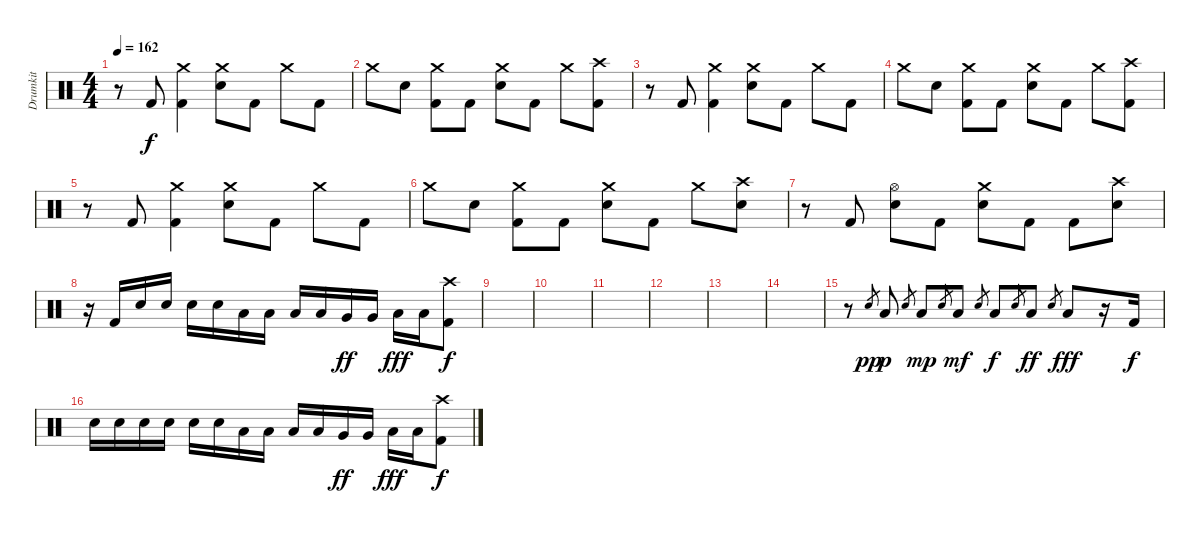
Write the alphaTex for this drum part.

\track ("Drumkit" "Drumkit") {instrument percussion}
\staff {score}
\articulation defaults
\ts (4 4)
\tempo 162
\clef neutral
\ks c
r.8{dy f} "Kick (hit) 2".8 ("Crash medium (hit)" "Kick (hit) 2").4 ("Crash medium (hit)" "Electric Snare (hit)").8 "Kick (hit) 2".8 "Crash medium (hit)".8 "Kick (hit) 2".8 |
"Crash medium (hit)".8 "Electric Snare (hit)".8 ("Crash medium (hit)" "Kick (hit) 2").8 "Kick (hit) 2".8 ("Crash medium (hit)" "Electric Snare (hit)").8 "Kick (hit) 2".8 "Crash medium (hit)".8 ("Crash high (hit)" "Kick (hit) 2").8 |
r.8 "Kick (hit) 2".8 ("Crash medium (hit)" "Kick (hit) 2").4 ("Crash medium (hit)" "Electric Snare (hit)").8 "Kick (hit) 2".8 "Crash medium (hit)".8 "Kick (hit) 2".8 |
"Crash medium (hit)".8 "Electric Snare (hit)".8 ("Crash medium (hit)" "Kick (hit) 2").8 "Kick (hit) 2".8 ("Crash medium (hit)" "Electric Snare (hit)").8 "Kick (hit) 2".8 "Crash medium (hit)".8 ("Crash high (hit)" "Kick (hit) 2").8 |
r.8 "Kick (hit) 2".8 ("Crash medium (hit)" "Kick (hit) 2").4 ("Crash medium (hit)" "Electric Snare (hit)").8 "Kick (hit) 2".8 "Crash medium (hit)".8 "Kick (hit) 2".8 |
"Crash medium (hit)".8 "Electric Snare (hit)".8 ("Crash medium (hit)" "Kick (hit) 2").8 "Kick (hit) 2".8 ("Crash medium (hit)" "Electric Snare (hit)").8 "Kick (hit) 2".8 "Crash medium (hit)".8 ("Crash high (hit)" "Electric Snare (hit)").8 |
r.8 "Kick (hit) 2".8 ("Hi-Hat (open)" "Electric Snare (hit)").8 "Kick (hit) 2".8 ("Crash medium (hit)" "Electric Snare (hit)").8 "Kick (hit) 2".8 "Kick (hit) 2".8 ("Crash high (hit)" "Electric Snare (hit)").8 |
r.16 "Kick (hit) 2".16 "Electric Snare (hit)".16 "Electric Snare (hit)".16 "Electric Snare (hit)".16 "Electric Snare (hit)".16 "Low Tom (hit)".16 "Low Tom (hit)".16 "Low Tom (hit)".16 "Low Tom (hit)".16 "Very Low Tom (hit)".16{dy ff} "Very Low Tom (hit)".16 "Low Floor Tom (hit)".16{dy fff} "Low Floor Tom (hit)".16 ("Crash high (hit)" "Kick (hit) 2").8{dy f} |
|
|
|
|
|
|
r.8 "Electric Snare (hit)".8{gr dy pp} "Low Floor Tom (hit)".8{dy p} "Electric Snare (hit)".8{gr} "Low Floor Tom (hit)".8{dy mp} "Electric Snare (hit)".8{gr} "Low Floor Tom (hit)".8{dy mf} "Electric Snare (hit)".8{gr} "Low Floor Tom (hit)".8{dy f} "Electric Snare (hit)".8{gr} "Low Floor Tom (hit)".8{dy ff} "Electric Snare (hit)".8{gr} "Low Floor Tom (hit)".8{dy fff} r.16 "Kick (hit) 2".16{dy f} |
"Electric Snare (hit)".16 "Electric Snare (hit)".16 "Electric Snare (hit)".16 "Electric Snare (hit)".16 "Electric Snare (hit)".16 "Electric Snare (hit)".16 "Low Tom (hit)".16 "Low Tom (hit)".16 "Low Tom (hit)".16 "Low Tom (hit)".16 "Very Low Tom (hit)".16{dy ff} "Very Low Tom (hit)".16 "Low Floor Tom (hit)".16{dy fff} "Low Floor Tom (hit)".16 ("Crash high (hit)" "Kick (hit) 2").8{dy f}
